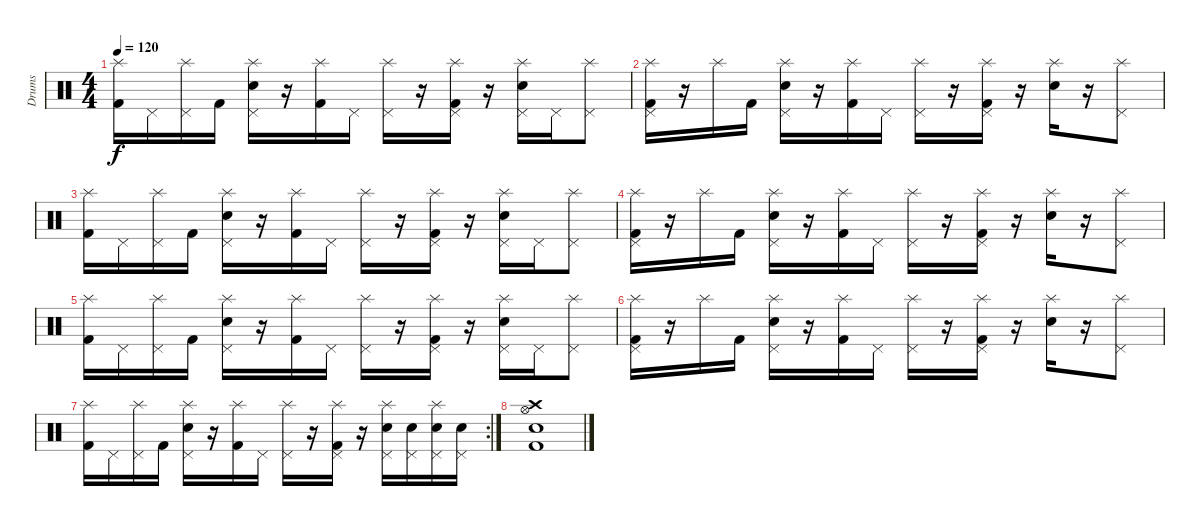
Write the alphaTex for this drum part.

\track ("Drums" "Drums") {instrument percussion}
\staff {score}
\articulation defaults
\ts (4 4)
\tempo 120
\clef neutral
\ks c
("Splash (hit)" "Kick (hit) 2").16{dy f} "Pedal Hi-Hat (hit)".16 ("Splash (hit)" "Pedal Hi-Hat (hit)").16 "Kick (hit) 2".16 ("Splash (hit)" "Pedal Hi-Hat (hit)" "Electric Snare (hit)").16 r.16 ("Splash (hit)" "Kick (hit) 2").16 "Pedal Hi-Hat (hit)".16 ("Splash (hit)" "Pedal Hi-Hat (hit)").16 r.16 ("Splash (hit)" "Pedal Hi-Hat (hit)" "Kick (hit) 2").16 r.16 ("Splash (hit)" "Pedal Hi-Hat (hit)" "Electric Snare (hit)").16 "Pedal Hi-Hat (hit)".16 ("Splash (hit)" "Pedal Hi-Hat (hit)").8 |
("Splash (hit)" "Pedal Hi-Hat (hit)" "Kick (hit) 2").16 r.16 "Splash (hit)".16 "Kick (hit) 2".16 ("Splash (hit)" "Pedal Hi-Hat (hit)" "Electric Snare (hit)").16 r.16 ("Splash (hit)" "Kick (hit) 2").16 "Pedal Hi-Hat (hit)".16 ("Splash (hit)" "Pedal Hi-Hat (hit)").16 r.16 ("Splash (hit)" "Pedal Hi-Hat (hit)" "Kick (hit) 2").16 r.16 ("Splash (hit)" "Electric Snare (hit)").16 r.16 ("Splash (hit)" "Pedal Hi-Hat (hit)").8 |
("Splash (hit)" "Kick (hit) 2").16 "Pedal Hi-Hat (hit)".16 ("Splash (hit)" "Pedal Hi-Hat (hit)").16 "Kick (hit) 2".16 ("Splash (hit)" "Pedal Hi-Hat (hit)" "Electric Snare (hit)").16 r.16 ("Splash (hit)" "Kick (hit) 2").16 "Pedal Hi-Hat (hit)".16 ("Splash (hit)" "Pedal Hi-Hat (hit)").16 r.16 ("Splash (hit)" "Pedal Hi-Hat (hit)" "Kick (hit) 2").16 r.16 ("Splash (hit)" "Pedal Hi-Hat (hit)" "Electric Snare (hit)").16 "Pedal Hi-Hat (hit)".16 ("Splash (hit)" "Pedal Hi-Hat (hit)").8 |
("Splash (hit)" "Pedal Hi-Hat (hit)" "Kick (hit) 2").16 r.16 "Splash (hit)".16 "Kick (hit) 2".16 ("Splash (hit)" "Pedal Hi-Hat (hit)" "Electric Snare (hit)").16 r.16 ("Splash (hit)" "Kick (hit) 2").16 "Pedal Hi-Hat (hit)".16 ("Splash (hit)" "Pedal Hi-Hat (hit)").16 r.16 ("Splash (hit)" "Pedal Hi-Hat (hit)" "Kick (hit) 2").16 r.16 ("Splash (hit)" "Electric Snare (hit)").16 r.16 ("Splash (hit)" "Pedal Hi-Hat (hit)").8 |
("Splash (hit)" "Kick (hit) 2").16 "Pedal Hi-Hat (hit)".16 ("Splash (hit)" "Pedal Hi-Hat (hit)").16 "Kick (hit) 2".16 ("Splash (hit)" "Pedal Hi-Hat (hit)" "Electric Snare (hit)").16 r.16 ("Splash (hit)" "Kick (hit) 2").16 "Pedal Hi-Hat (hit)".16 ("Splash (hit)" "Pedal Hi-Hat (hit)").16 r.16 ("Splash (hit)" "Pedal Hi-Hat (hit)" "Kick (hit) 2").16 r.16 ("Splash (hit)" "Pedal Hi-Hat (hit)" "Electric Snare (hit)").16 "Pedal Hi-Hat (hit)".16 ("Splash (hit)" "Pedal Hi-Hat (hit)").8 |
("Splash (hit)" "Pedal Hi-Hat (hit)" "Kick (hit) 2").16 r.16 "Splash (hit)".16 "Kick (hit) 2".16 ("Splash (hit)" "Pedal Hi-Hat (hit)" "Electric Snare (hit)").16 r.16 ("Splash (hit)" "Kick (hit) 2").16 "Pedal Hi-Hat (hit)".16 ("Splash (hit)" "Pedal Hi-Hat (hit)").16 r.16 ("Splash (hit)" "Pedal Hi-Hat (hit)" "Kick (hit) 2").16 r.16 ("Splash (hit)" "Electric Snare (hit)").16 r.16 ("Splash (hit)" "Pedal Hi-Hat (hit)").8 |
\rc 2
("Splash (hit)" "Kick (hit) 2").16 "Pedal Hi-Hat (hit)".16 ("Splash (hit)" "Pedal Hi-Hat (hit)").16 "Kick (hit) 2".16 ("Splash (hit)" "Pedal Hi-Hat (hit)" "Electric Snare (hit)").16 r.16 ("Splash (hit)" "Kick (hit) 2").16 "Pedal Hi-Hat (hit)".16 ("Splash (hit)" "Pedal Hi-Hat (hit)").16 r.16 ("Splash (hit)" "Pedal Hi-Hat (hit)" "Kick (hit) 2").16 r.16 ("Splash (hit)" "Pedal Hi-Hat (hit)" "Electric Snare (hit)").16 ("Pedal Hi-Hat (hit)" "Electric Snare (hit)").16 ("Splash (hit)" "Pedal Hi-Hat (hit)" "Electric Snare (hit)").16 ("Pedal Hi-Hat (hit)" "Electric Snare (hit)").16 |
("Crash high (hit)" "Hi-Hat (open)" "Electric Snare (hit)" "Kick (hit) 2").1
